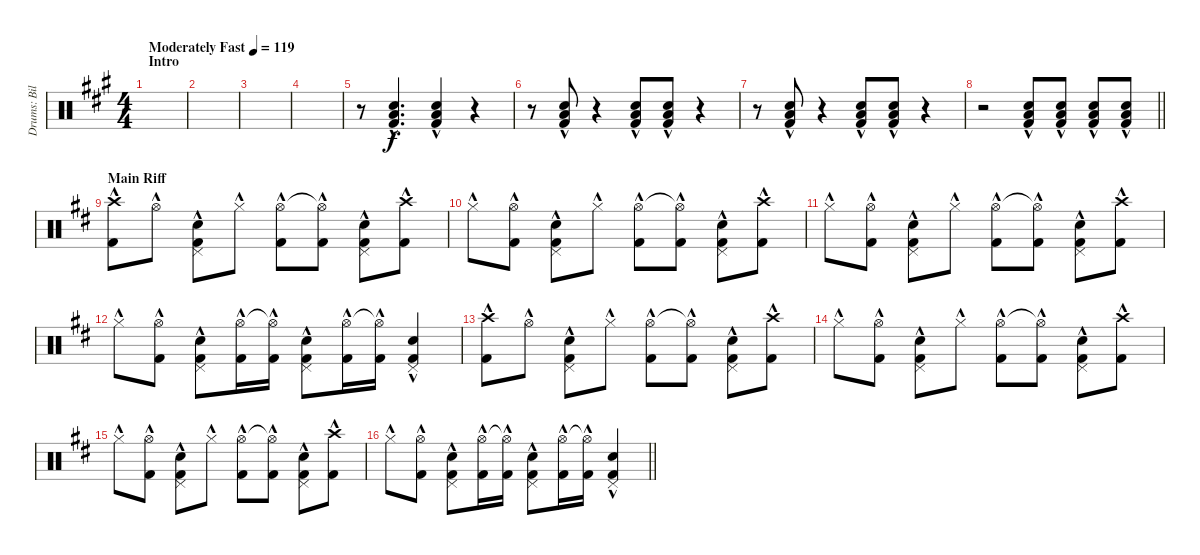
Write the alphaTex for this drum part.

\track ("Drums: Bill" "Drums: Bil") {instrument percussion}
\staff {score}
\articulation defaults
\ts (4 4)
\section ("" "Intro")
\tempo (119 "Moderately Fast")
\clef neutral
\ks a
|
|
|
|
r.8 ("Electric Snare (hit)"{hac} "Low Tom (hit)"{hac} "Kick (hit) 2"{hac}).4{d} ("Electric Snare (hit)"{hac} "Low Tom (hit)"{hac} "Kick (hit) 2"{hac}).4 r.4 |
r.8 ("Electric Snare (hit)"{hac} "Low Tom (hit)"{hac} "Kick (hit) 2"{hac}).8 r.4 ("Electric Snare (hit)"{hac} "Low Tom (hit)"{hac} "Kick (hit) 2"{hac}).8 ("Electric Snare (hit)"{hac} "Low Tom (hit)"{hac} "Kick (hit) 2"{hac}).8 r.4 |
r.8 ("Electric Snare (hit)"{hac} "Low Tom (hit)"{hac} "Kick (hit) 2"{hac}).8 r.4 ("Electric Snare (hit)"{hac} "Low Tom (hit)"{hac} "Kick (hit) 2"{hac}).8 ("Electric Snare (hit)"{hac} "Low Tom (hit)"{hac} "Kick (hit) 2"{hac}).8 r.4 |
\barLineRight lightlight
r.2 ("Electric Snare (hit)"{hac} "Low Tom (hit)"{hac} "Kick (hit) 2"{hac}).8 ("Electric Snare (hit)"{hac} "Low Tom (hit)"{hac} "Kick (hit) 2"{hac}).8 ("Electric Snare (hit)"{hac} "Low Tom (hit)"{hac} "Kick (hit) 2"{hac}).8 ("Electric Snare (hit)"{hac} "Low Tom (hit)"{hac} "Kick (hit) 2"{hac}).8 |
\section ("" "Main Riff")
\ks d
("Crash high (hit)"{hac} "Kick (hit) 2"{hac}).8 "Hi-Hat (open)"{hac}.8 ("Pedal Hi-Hat (hit)"{hac} "Snare (hit) 2"{hac} "Kick (hit) 2"{hac}).8 "Hi-Hat (closed)"{hac}.8 ("Hi-Hat (open)"{hac} "Kick (hit) 2"{hac}).8 ("Hi-Hat (open)"{t} "Kick (hit) 2"{hac}).8 ("Pedal Hi-Hat (hit)"{hac} "Snare (hit) 2"{hac} "Kick (hit) 2"{hac}).8 ("Crash high (hit)"{hac} "Kick (hit) 2"{hac}).8 |
"Hi-Hat (closed)"{hac}.8 ("Hi-Hat (open)"{hac} "Kick (hit) 2"{hac}).8 ("Pedal Hi-Hat (hit)"{hac} "Snare (hit) 2"{hac} "Kick (hit) 2"{hac}).8 "Hi-Hat (closed)"{hac}.8 ("Hi-Hat (open)"{hac} "Kick (hit) 2"{hac}).8 ("Hi-Hat (open)"{t} "Kick (hit) 2"{hac}).8 ("Pedal Hi-Hat (hit)"{hac} "Snare (hit) 2"{hac} "Kick (hit) 2"{hac}).8 ("Crash high (hit)"{hac} "Kick (hit) 2"{hac}).8 |
"Hi-Hat (closed)"{hac}.8 ("Hi-Hat (open)"{hac} "Kick (hit) 2"{hac}).8 ("Pedal Hi-Hat (hit)"{hac} "Snare (hit) 2"{hac} "Kick (hit) 2"{hac}).8 "Hi-Hat (closed)"{hac}.8 ("Hi-Hat (open)"{hac} "Kick (hit) 2"{hac}).8 ("Hi-Hat (open)"{t} "Kick (hit) 2"{hac}).8 ("Pedal Hi-Hat (hit)"{hac} "Snare (hit) 2"{hac} "Kick (hit) 2"{hac}).8 ("Crash high (hit)"{hac} "Kick (hit) 2"{hac}).8 |
"Hi-Hat (closed)"{hac}.8 ("Hi-Hat (open)"{hac} "Kick (hit) 2"{hac}).8 ("Pedal Hi-Hat (hit)"{hac} "Snare (hit) 2"{hac} "Kick (hit) 2"{hac}).8 ("Hi-Hat (open)"{hac} "Kick (hit) 2"{hac}).16 ("Hi-Hat (open)"{t} "Kick (hit) 2"{hac}).16 ("Pedal Hi-Hat (hit)"{hac} "Snare (hit) 2"{hac} "Kick (hit) 2"{hac}).8 ("Hi-Hat (open)"{hac} "Kick (hit) 2"{hac}).16 ("Hi-Hat (open)"{t} "Kick (hit) 2"{hac}).16 ("Pedal Hi-Hat (hit)"{hac} "Snare (hit) 2"{hac} "Kick (hit) 2"{hac}).4 |
("Crash high (hit)"{hac} "Kick (hit) 2"{hac}).8 "Hi-Hat (open)"{hac}.8 ("Pedal Hi-Hat (hit)"{hac} "Snare (hit) 2"{hac} "Kick (hit) 2"{hac}).8 "Hi-Hat (closed)"{hac}.8 ("Hi-Hat (open)"{hac} "Kick (hit) 2"{hac}).8 ("Hi-Hat (open)"{t} "Kick (hit) 2"{hac}).8 ("Pedal Hi-Hat (hit)"{hac} "Snare (hit) 2"{hac} "Kick (hit) 2"{hac}).8 ("Crash high (hit)"{hac} "Kick (hit) 2"{hac}).8 |
"Hi-Hat (closed)"{hac}.8 ("Hi-Hat (open)"{hac} "Kick (hit) 2"{hac}).8 ("Pedal Hi-Hat (hit)"{hac} "Snare (hit) 2"{hac} "Kick (hit) 2"{hac}).8 "Hi-Hat (closed)"{hac}.8 ("Hi-Hat (open)"{hac} "Kick (hit) 2"{hac}).8 ("Hi-Hat (open)"{t} "Kick (hit) 2"{hac}).8 ("Pedal Hi-Hat (hit)"{hac} "Snare (hit) 2"{hac} "Kick (hit) 2"{hac}).8 ("Crash high (hit)"{hac} "Kick (hit) 2"{hac}).8 |
"Hi-Hat (closed)"{hac}.8 ("Hi-Hat (open)"{hac} "Kick (hit) 2"{hac}).8 ("Pedal Hi-Hat (hit)"{hac} "Snare (hit) 2"{hac} "Kick (hit) 2"{hac}).8 "Hi-Hat (closed)"{hac}.8 ("Hi-Hat (open)"{hac} "Kick (hit) 2"{hac}).8 ("Hi-Hat (open)"{t} "Kick (hit) 2"{hac}).8 ("Pedal Hi-Hat (hit)"{hac} "Snare (hit) 2"{hac} "Kick (hit) 2"{hac}).8 ("Crash high (hit)"{hac} "Kick (hit) 2"{hac}).8 |
\barLineRight lightlight "Hi-Hat (closed)"{hac}.8
("Hi-Hat (open)"{hac} "Kick (hit) 2"{hac}).8 ("Pedal Hi-Hat (hit)"{hac} "Snare (hit) 2"{hac} "Kick (hit) 2"{hac}).8 ("Hi-Hat (open)"{hac} "Kick (hit) 2"{hac}).16 ("Hi-Hat (open)"{t} "Kick (hit) 2"{hac}).16 ("Pedal Hi-Hat (hit)"{hac} "Snare (hit) 2"{hac} "Kick (hit) 2"{hac}).8 ("Hi-Hat (open)"{hac} "Kick (hit) 2"{hac}).16 ("Hi-Hat (open)"{t} "Kick (hit) 2"{hac}).16 ("Pedal Hi-Hat (hit)"{hac} "Snare (hit) 2"{hac} "Kick (hit) 2"{hac}).4
